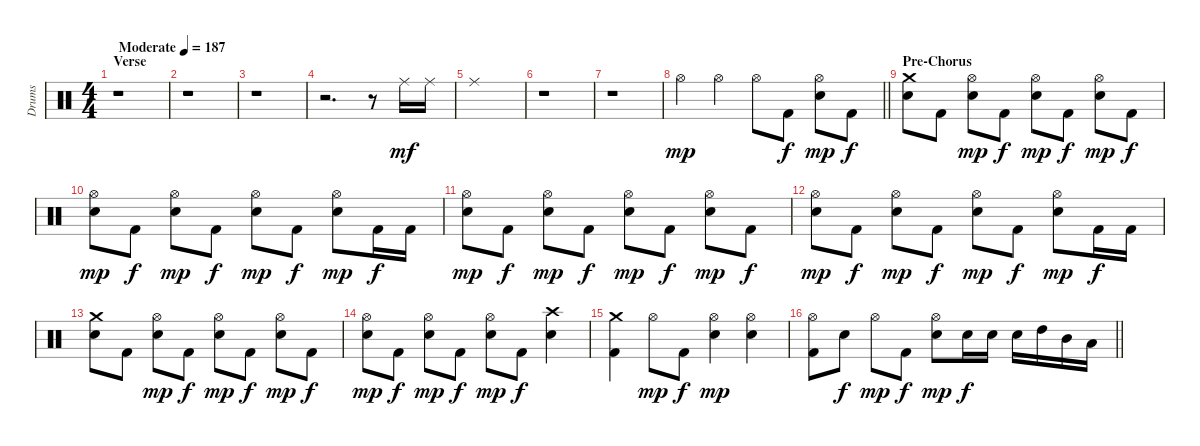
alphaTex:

\track ("Drums" "Drums") {instrument percussion}
\staff {score}
\articulation defaults
\ts (4 4)
\section ("" "Verse")
\tempo (187 "Moderate")
\clef neutral
\ks c
r.1{dy mf} |
r.1 |
r.1 |
r.2{d} r.8 "Ride (middle)".16 "Ride (middle)".16 |
"Ride (middle)".1 |
r.1 |
r.1 |
\barLineRight lightlight "Hi-Hat (open)".4{dy mp} "Hi-Hat (open)".4 "Hi-Hat (open)".8 "Kick (hit) 2".8{dy f}
("Hi-Hat (open)" "Snare (hit) 2").8{dy mp} "Kick (hit) 2".8{dy f} |
\section ("" "Pre-Chorus")
("Crash medium (hit)" "Snare (hit) 2").8 "Kick (hit) 2".8 ("Hi-Hat (open)" "Snare (hit) 2").8{dy mp} "Kick (hit) 2".8{dy f} ("Hi-Hat (open)" "Snare (hit) 2").8{dy mp} "Kick (hit) 2".8{dy f} ("Hi-Hat (open)" "Snare (hit) 2").8{dy mp} "Kick (hit) 2".8{dy f} |
("Hi-Hat (open)" "Snare (hit) 2").8{dy mp} "Kick (hit) 2".8{dy f} ("Hi-Hat (open)" "Snare (hit) 2").8{dy mp} "Kick (hit) 2".8{dy f} ("Hi-Hat (open)" "Snare (hit) 2").8{dy mp} "Kick (hit) 2".8{dy f} ("Hi-Hat (open)" "Snare (hit) 2").8{dy mp} "Kick (hit) 2".16{dy f} "Kick (hit) 2".16 |
("Hi-Hat (open)" "Snare (hit) 2").8{dy mp} "Kick (hit) 2".8{dy f} ("Hi-Hat (open)" "Snare (hit) 2").8{dy mp} "Kick (hit) 2".8{dy f} ("Hi-Hat (open)" "Snare (hit) 2").8{dy mp} "Kick (hit) 2".8{dy f} ("Hi-Hat (open)" "Snare (hit) 2").8{dy mp} "Kick (hit) 2".8{dy f} |
("Hi-Hat (open)" "Snare (hit) 2").8{dy mp} "Kick (hit) 2".8{dy f} ("Hi-Hat (open)" "Snare (hit) 2").8{dy mp} "Kick (hit) 2".8{dy f} ("Hi-Hat (open)" "Snare (hit) 2").8{dy mp} "Kick (hit) 2".8{dy f} ("Hi-Hat (open)" "Snare (hit) 2").8{dy mp} "Kick (hit) 2".16{dy f} "Kick (hit) 2".16 |
("Crash medium (hit)" "Snare (hit) 2").8 "Kick (hit) 2".8 ("Hi-Hat (open)" "Snare (hit) 2").8{dy mp} "Kick (hit) 2".8{dy f} ("Hi-Hat (open)" "Snare (hit) 2").8{dy mp} "Kick (hit) 2".8{dy f} ("Hi-Hat (open)" "Snare (hit) 2").8{dy mp} "Kick (hit) 2".8{dy f} |
("Hi-Hat (open)" "Snare (hit) 2").8{dy mp} "Kick (hit) 2".8{dy f} ("Hi-Hat (open)" "Snare (hit) 2").8{dy mp} "Kick (hit) 2".8{dy f} ("Hi-Hat (open)" "Snare (hit) 2").8{dy mp} "Kick (hit) 2".8{dy f} ("Crash high (hit)" "Snare (hit) 2").4 |
("Crash medium (hit)" "Kick (hit) 2").4 "Hi-Hat (open)".8{dy mp} "Kick (hit) 2".8{dy f} ("Hi-Hat (open)" "Snare (hit) 2").4{dy mp} ("Hi-Hat (open)" "Snare (hit) 2").4 |
\barLineRight lightlight
("Hi-Hat (open)" "Kick (hit) 2").8 "Snare (hit) 2".8{dy f} "Hi-Hat (open)".8{dy mp} "Kick (hit) 2".8{dy f} ("Hi-Hat (open)" "Snare (hit) 2").8{dy mp} "Snare (hit) 2".16{dy f} "Snare (hit) 2".16 "Snare (hit) 2".16 "High Tom (hit)".16 "Mid Tom (hit)".16 "Low Tom (hit)".16
